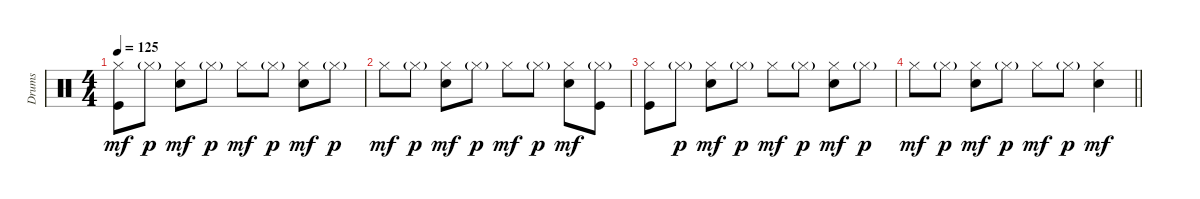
\track ("Drums" "Drums") {instrument percussion}
\staff {score}
\articulation defaults
\ts (4 4)
\tempo 125
\clef neutral
\ks c
("Hi-Hat (closed)" "Kick (hit)").8{dy mf} "Hi-Hat (closed)"{g}.8{dy p} ("Hi-Hat (closed)" "Electric Snare (hit)").8{dy mf} "Hi-Hat (closed)"{g}.8{dy p} "Hi-Hat (closed)".8{dy mf} "Hi-Hat (closed)"{g}.8{dy p} ("Hi-Hat (closed)" "Electric Snare (hit)").8{dy mf} "Hi-Hat (closed)"{g}.8{dy p} |
"Hi-Hat (closed)".8{dy mf} "Hi-Hat (closed)"{g}.8{dy p} ("Hi-Hat (closed)" "Electric Snare (hit)").8{dy mf} "Hi-Hat (closed)"{g}.8{dy p} "Hi-Hat (closed)".8{dy mf} "Hi-Hat (closed)"{g}.8{dy p} ("Hi-Hat (closed)" "Electric Snare (hit)").8{dy mf} ("Hi-Hat (closed)"{g} "Kick (hit)").8 |
("Hi-Hat (closed)" "Kick (hit)").8 "Hi-Hat (closed)"{g}.8{dy p} ("Hi-Hat (closed)" "Electric Snare (hit)").8{dy mf} "Hi-Hat (closed)"{g}.8{dy p} "Hi-Hat (closed)".8{dy mf} "Hi-Hat (closed)"{g}.8{dy p} ("Hi-Hat (closed)" "Electric Snare (hit)").8{dy mf} "Hi-Hat (closed)"{g}.8{dy p} |
\barLineRight lightlight "Hi-Hat (closed)".8{dy mf} "Hi-Hat (closed)"{g}.8{dy p}
("Hi-Hat (closed)" "Electric Snare (hit)").8{dy mf} "Hi-Hat (closed)"{g}.8{dy p} "Hi-Hat (closed)".8{dy mf} "Hi-Hat (closed)"{g}.8{dy p} ("Hi-Hat (closed)" "Electric Snare (hit)").4{dy mf}
